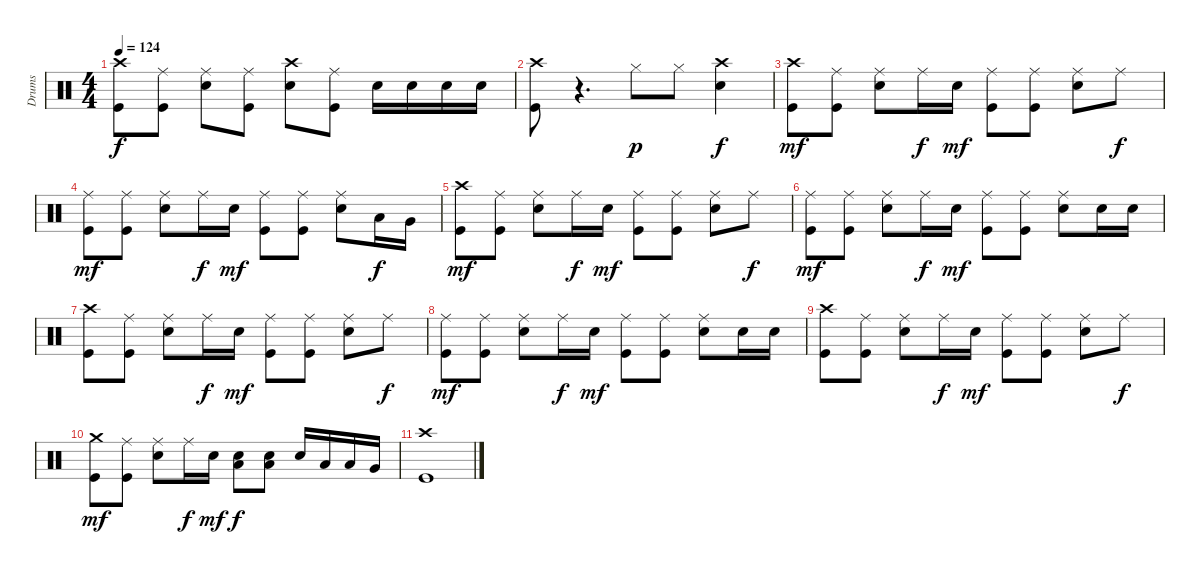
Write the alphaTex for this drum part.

\track ("Drums" "Drums") {instrument percussion}
\staff {score}
\articulation defaults
\ts (4 4)
\tempo 124
\clef neutral
\ks c
("Crash high (hit)" "Kick (hit)").8{dy f} ("Ride (middle)" "Kick (hit)").8 ("Ride (middle)" "Electric Snare (hit)").8 ("Ride (middle)" "Kick (hit)").8 ("Crash high (hit)" "Electric Snare (hit)").8 ("Ride (middle)" "Kick (hit)").8 "Electric Snare (hit)".16 "Electric Snare (hit)".16 "Electric Snare (hit)".16 "Electric Snare (hit)".16 |
("Crash high (hit)" "Kick (hit)").8 r.4{d} "Hi-Hat (closed)".8{dy p} "Hi-Hat (closed)".8 ("Crash high (hit)" "Electric Snare (hit)").4{dy f} |
("Crash high (hit)" "Kick (hit)").8{dy mf} ("Ride (middle)" "Kick (hit)").8 ("Ride (middle)" "Electric Snare (hit)").8 "Ride (middle)".16{dy f} "Electric Snare (hit)".16{dy mf} ("Ride (middle)" "Kick (hit)").8 ("Ride (middle)" "Kick (hit)").8 ("Ride (middle)" "Electric Snare (hit)").8 "Ride (middle)".8{dy f} |
("Ride (middle)" "Kick (hit)").8{dy mf} ("Ride (middle)" "Kick (hit)").8 ("Ride (middle)" "Electric Snare (hit)").8 "Ride (middle)".16{dy f} "Electric Snare (hit)".16{dy mf} ("Ride (middle)" "Kick (hit)").8 ("Ride (middle)" "Kick (hit)").8 ("Ride (middle)" "Electric Snare (hit)").8 "Low Tom (hit)".16{dy f} "Very Low Tom (hit)".16 |
("Crash high (hit)" "Kick (hit)").8{dy mf} ("Ride (middle)" "Kick (hit)").8 ("Ride (middle)" "Electric Snare (hit)").8 "Ride (middle)".16{dy f} "Electric Snare (hit)".16{dy mf} ("Ride (middle)" "Kick (hit)").8 ("Ride (middle)" "Kick (hit)").8 ("Ride (middle)" "Electric Snare (hit)").8 "Ride (middle)".8{dy f} |
("Ride (middle)" "Kick (hit)").8{dy mf} ("Ride (middle)" "Kick (hit)").8 ("Ride (middle)" "Electric Snare (hit)").8 "Ride (middle)".16{dy f} "Electric Snare (hit)".16{dy mf} ("Ride (middle)" "Kick (hit)").8 ("Ride (middle)" "Kick (hit)").8 ("Ride (middle)" "Electric Snare (hit)").8 "Electric Snare (hit)".16 "Electric Snare (hit)".16 |
("Crash high (hit)" "Kick (hit)").8 ("Ride (middle)" "Kick (hit)").8 ("Ride (middle)" "Electric Snare (hit)").8 "Ride (middle)".16{dy f} "Electric Snare (hit)".16{dy mf} ("Ride (middle)" "Kick (hit)").8 ("Ride (middle)" "Kick (hit)").8 ("Ride (middle)" "Electric Snare (hit)").8 "Ride (middle)".8{dy f} |
("Ride (middle)" "Kick (hit)").8{dy mf} ("Ride (middle)" "Kick (hit)").8 ("Ride (middle)" "Electric Snare (hit)").8 "Ride (middle)".16{dy f} "Electric Snare (hit)".16{dy mf} ("Ride (middle)" "Kick (hit)").8 ("Ride (middle)" "Kick (hit)").8 ("Ride (middle)" "Electric Snare (hit)").8 "Electric Snare (hit)".16 "Electric Snare (hit)".16 |
("Crash high (hit)" "Kick (hit)").8 ("Ride (middle)" "Kick (hit)").8 ("Ride (middle)" "Electric Snare (hit)").8 "Ride (middle)".16{dy f} "Electric Snare (hit)".16{dy mf} ("Ride (middle)" "Kick (hit)").8 ("Ride (middle)" "Kick (hit)").8 ("Ride (middle)" "Electric Snare (hit)").8 "Ride (middle)".8{dy f} |
("Crash medium (hit)" "Kick (hit)").8{dy mf} ("Ride (middle)" "Kick (hit)").8 ("Ride (middle)" "Electric Snare (hit)").8 "Ride (middle)".16{dy f} "Electric Snare (hit)".16{dy mf} ("Low Tom (hit)" "Electric Snare (hit)").8{dy f} ("Low Tom (hit)" "Electric Snare (hit)").8 "Electric Snare (hit)".16 "Low Tom (hit)".16 "Low Tom (hit)".16 "Very Low Tom (hit)".16 |
("Crash high (hit)" "Kick (hit)").1
